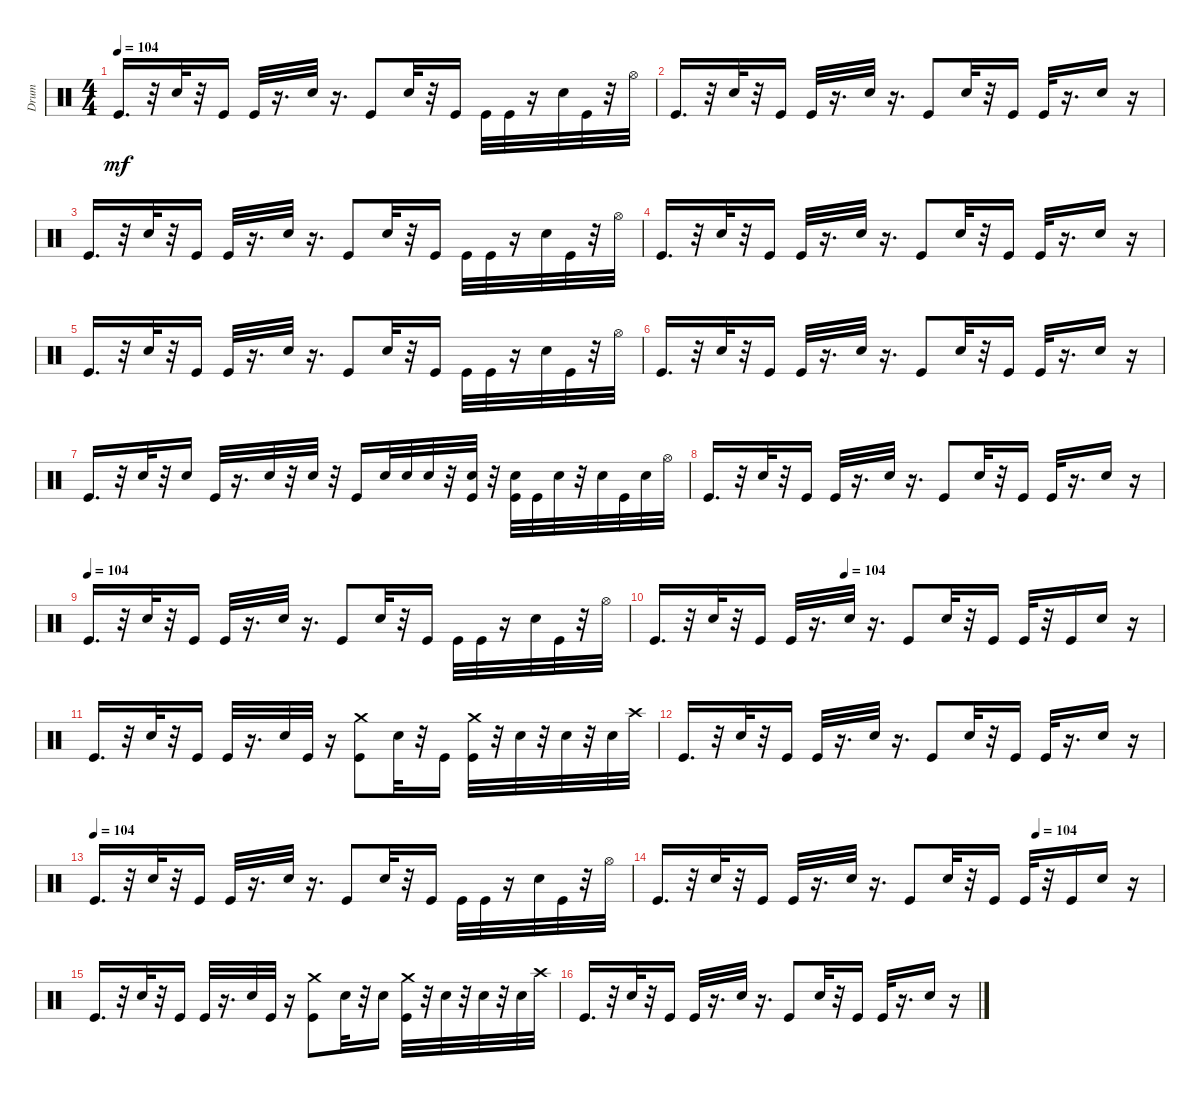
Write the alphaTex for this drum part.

\track ("Drum" "Drum") {instrument percussion}
\staff {score}
\articulation defaults
\ts (4 4)
\tempo 104
\clef neutral
\ks c "Kick (hit)".16{d dy mf}
r.32 "Snare (hit) 2".32 r.32 "Kick (hit)".16 "Kick (hit)".32 r.16{d} "Snare (hit) 2".32 r.16{d} "Kick (hit)".8 "Snare (hit) 2".32 r.32 "Kick (hit)".16 "Kick (hit)".32 "Kick (hit)".32 r.16 "Snare (hit) 2".32 "Kick (hit)".32 r.32 "Hi-Hat (open)".32 |
"Kick (hit)".16{d} r.32 "Snare (hit) 2".32 r.32 "Kick (hit)".16 "Kick (hit)".32 r.16{d} "Snare (hit) 2".32 r.16{d} "Kick (hit)".8 "Snare (hit) 2".32 r.32 "Kick (hit)".16 "Kick (hit)".32 r.16{d} "Snare (hit) 2".16 r.16 |
"Kick (hit)".16{d} r.32 "Snare (hit) 2".32 r.32 "Kick (hit)".16 "Kick (hit)".32 r.16{d} "Snare (hit) 2".32 r.16{d} "Kick (hit)".8 "Snare (hit) 2".32 r.32 "Kick (hit)".16 "Kick (hit)".32 "Kick (hit)".32 r.16 "Snare (hit) 2".32 "Kick (hit)".32 r.32 "Hi-Hat (open)".32 |
"Kick (hit)".16{d} r.32 "Snare (hit) 2".32 r.32 "Kick (hit)".16 "Kick (hit)".32 r.16{d} "Snare (hit) 2".32 r.16{d} "Kick (hit)".8 "Snare (hit) 2".32 r.32 "Kick (hit)".16 "Kick (hit)".32 r.16{d} "Snare (hit) 2".16 r.16 |
"Kick (hit)".16{d} r.32 "Snare (hit) 2".32 r.32 "Kick (hit)".16 "Kick (hit)".32 r.16{d} "Snare (hit) 2".32 r.16{d} "Kick (hit)".8 "Snare (hit) 2".32 r.32 "Kick (hit)".16 "Kick (hit)".32 "Kick (hit)".32 r.16 "Snare (hit) 2".32 "Kick (hit)".32 r.32 "Hi-Hat (open)".32 |
"Kick (hit)".16{d} r.32 "Snare (hit) 2".32 r.32 "Kick (hit)".16 "Kick (hit)".32 r.16{d} "Snare (hit) 2".32 r.16{d} "Kick (hit)".8 "Snare (hit) 2".32 r.32 "Kick (hit)".16 "Kick (hit)".32 r.16{d} "Snare (hit) 2".16 r.16 |
"Kick (hit)".16{d} r.32 "Snare (hit) 2".32 r.32 "Snare (hit) 2".16 "Kick (hit)".32 r.16{d} "Snare (hit) 2".32 r.32 "Snare (hit) 2".32 r.32 "Kick (hit)".16 "Snare (hit) 2".32 "Snare (hit) 2".32 "Snare (hit) 2".32 r.32 ("Snare (hit) 2" "Kick (hit)").32 r.32 ("Snare (hit) 2" "Kick (hit)").32 "Kick (hit)".32 "Snare (hit) 2".32 r.32 "Snare (hit) 2".32 "Kick (hit)".32 "Snare (hit) 2".32 "Hi-Hat (open)".32 |
"Kick (hit)".16{d} r.32 "Snare (hit) 2".32 r.32 "Kick (hit)".16 "Kick (hit)".32 r.16{d} "Snare (hit) 2".32 r.16{d} "Kick (hit)".8 "Snare (hit) 2".32 r.32 "Kick (hit)".16 "Kick (hit)".32 r.16{d} "Snare (hit) 2".16 r.16 |
\tempo (104)
"Kick (hit)".16{d} r.32 "Snare (hit) 2".32 r.32 "Kick (hit)".16 "Kick (hit)".32 r.16{d} "Snare (hit) 2".32 r.16{d} "Kick (hit)".8 "Snare (hit) 2".32 r.32 "Kick (hit)".16 "Kick (hit)".32 "Kick (hit)".32 r.16 "Snare (hit) 2".32 "Kick (hit)".32 r.32 "Hi-Hat (open)".32 |
\tempo (104 0.375)
"Kick (hit)".16{d} r.32 "Snare (hit) 2".32 r.32 "Kick (hit)".16 "Kick (hit)".32 r.16{d} "Snare (hit) 2".32 r.16{d} "Kick (hit)".8 "Snare (hit) 2".32 r.32 "Kick (hit)".16 "Kick (hit)".32 r.32 "Kick (hit)".16 "Snare (hit) 2".16 r.16 |
"Kick (hit)".16{d} r.32 "Snare (hit) 2".32 r.32 "Kick (hit)".16 "Kick (hit)".32 r.16{d} "Snare (hit) 2".32 "Kick (hit)".32 r.16 ("Crash medium (hit)" "Kick (hit)").8 "Snare (hit) 2".32 r.32 "Kick (hit)".16 ("Crash medium (hit)" "Kick (hit)").32 r.32 "Snare (hit) 2".32 r.32 "Snare (hit) 2".32 r.32 "Snare (hit) 2".32 "Crash high (hit)".32 |
"Kick (hit)".16{d} r.32 "Snare (hit) 2".32 r.32 "Kick (hit)".16 "Kick (hit)".32 r.16{d} "Snare (hit) 2".32 r.16{d} "Kick (hit)".8 "Snare (hit) 2".32 r.32 "Kick (hit)".16 "Kick (hit)".32 r.16{d} "Snare (hit) 2".16 r.16 |
\tempo (104)
"Kick (hit)".16{d} r.32 "Snare (hit) 2".32 r.32 "Kick (hit)".16 "Kick (hit)".32 r.16{d} "Snare (hit) 2".32 r.16{d} "Kick (hit)".8 "Snare (hit) 2".32 r.32 "Kick (hit)".16 "Kick (hit)".32 "Kick (hit)".32 r.16 "Snare (hit) 2".32 "Kick (hit)".32 r.32 "Hi-Hat (open)".32 |
\tempo (104 0.75)
"Kick (hit)".16{d} r.32 "Snare (hit) 2".32 r.32 "Kick (hit)".16 "Kick (hit)".32 r.16{d} "Snare (hit) 2".32 r.16{d} "Kick (hit)".8 "Snare (hit) 2".32 r.32 "Kick (hit)".16 "Kick (hit)".32 r.32 "Kick (hit)".16 "Snare (hit) 2".16 r.16 |
"Kick (hit)".16{d} r.32 "Snare (hit) 2".32 r.32 "Kick (hit)".16 "Kick (hit)".32 r.16{d} "Snare (hit) 2".32 "Kick (hit)".32 r.16 ("Crash medium (hit)" "Kick (hit)").8 "Snare (hit) 2".32 r.32 "Snare (hit) 2".16 ("Crash medium (hit)" "Kick (hit)").32 r.32 "Snare (hit) 2".32 r.32 "Snare (hit) 2".32 r.32 "Snare (hit) 2".32 "Crash high (hit)".32 |
"Kick (hit)".16{d} r.32 "Snare (hit) 2".32 r.32 "Kick (hit)".16 "Kick (hit)".32 r.16{d} "Snare (hit) 2".32 r.16{d} "Kick (hit)".8 "Snare (hit) 2".32 r.32 "Kick (hit)".16 "Kick (hit)".32 r.16{d} "Snare (hit) 2".16 r.16
